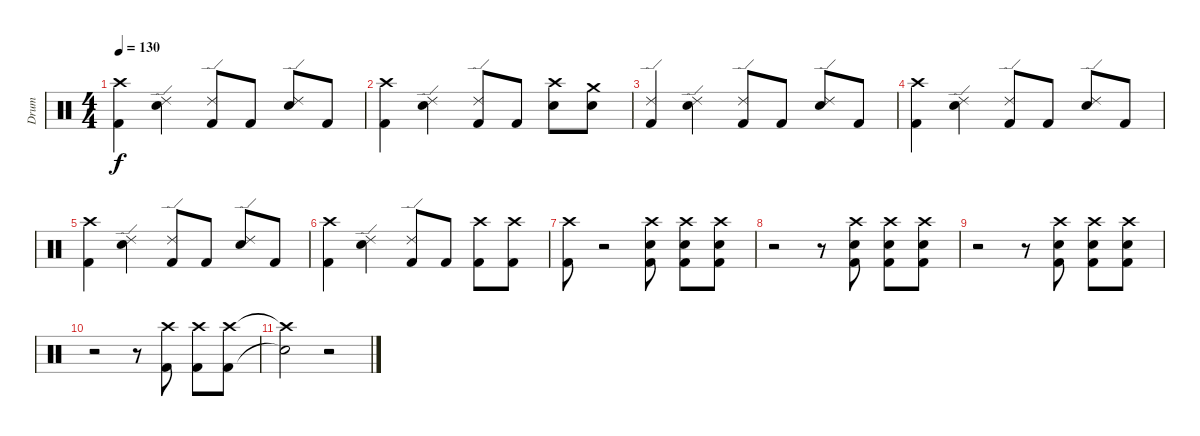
\track ("Drum" "Drum") {instrument percussion}
\staff {score}
\articulation defaults
\ts (4 4)
\tempo 130
\clef neutral
\ks c
("Crash high (hit)" "Kick (hit) 2").4{dy f} ("Ride (edge) 2" "Electric Snare (hit)").4 ("Ride (edge) 2" "Kick (hit) 2").8 "Kick (hit) 2".8 ("Ride (edge) 2" "Electric Snare (hit)").8 "Kick (hit) 2".8 |
("Crash high (hit)" "Kick (hit) 2").4 ("Ride (edge) 2" "Electric Snare (hit)").4 ("Ride (edge) 2" "Kick (hit) 2").8 "Kick (hit) 2".8 ("Crash high (hit)" "Electric Snare (hit)").8 ("Crash medium (hit)" "Electric Snare (hit)").8 |
("Ride (edge) 2" "Kick (hit) 2").4 ("Ride (edge) 2" "Electric Snare (hit)").4 ("Ride (edge) 2" "Kick (hit) 2").8 "Kick (hit) 2".8 ("Ride (edge) 2" "Electric Snare (hit)").8 "Kick (hit) 2".8 |
("Crash high (hit)" "Kick (hit) 2").4 ("Ride (edge) 2" "Electric Snare (hit)").4 ("Ride (edge) 2" "Kick (hit) 2").8 "Kick (hit) 2".8 ("Ride (edge) 2" "Electric Snare (hit)").8 "Kick (hit) 2".8 |
("Crash high (hit)" "Kick (hit) 2").4 ("Ride (edge) 2" "Electric Snare (hit)").4 ("Ride (edge) 2" "Kick (hit) 2").8 "Kick (hit) 2".8 ("Ride (edge) 2" "Electric Snare (hit)").8 "Kick (hit) 2".8 |
("Crash high (hit)" "Kick (hit) 2").4 ("Ride (edge) 2" "Electric Snare (hit)").4 ("Ride (edge) 2" "Kick (hit) 2").8 "Kick (hit) 2".8 ("Crash high (hit)" "Kick (hit) 2").8 ("Crash high (hit)" "Kick (hit) 2").8 |
("Crash high (hit)" "Kick (hit) 2").8 r.2 ("Crash high (hit)" "Electric Snare (hit)" "Kick (hit) 2").8 ("Crash high (hit)" "Electric Snare (hit)" "Kick (hit) 2").8 ("Crash high (hit)" "Electric Snare (hit)" "Kick (hit) 2").8 |
r.2 r.8 ("Crash high (hit)" "Electric Snare (hit)" "Kick (hit) 2").8 ("Crash high (hit)" "Electric Snare (hit)" "Kick (hit) 2").8 ("Crash high (hit)" "Electric Snare (hit)" "Kick (hit) 2").8 |
r.2 r.8 ("Crash high (hit)" "Electric Snare (hit)" "Kick (hit) 2").8 ("Crash high (hit)" "Electric Snare (hit)" "Kick (hit) 2").8 ("Crash high (hit)" "Electric Snare (hit)" "Kick (hit) 2").8 |
r.2 r.8 ("Crash high (hit)" "Kick (hit) 2").8 ("Crash high (hit)" "Kick (hit) 2").8 ("Crash high (hit)" "Kick (hit) 2").8 |
("Crash high (hit)"{t} "Snare (hit)"{t}).2 r.2
